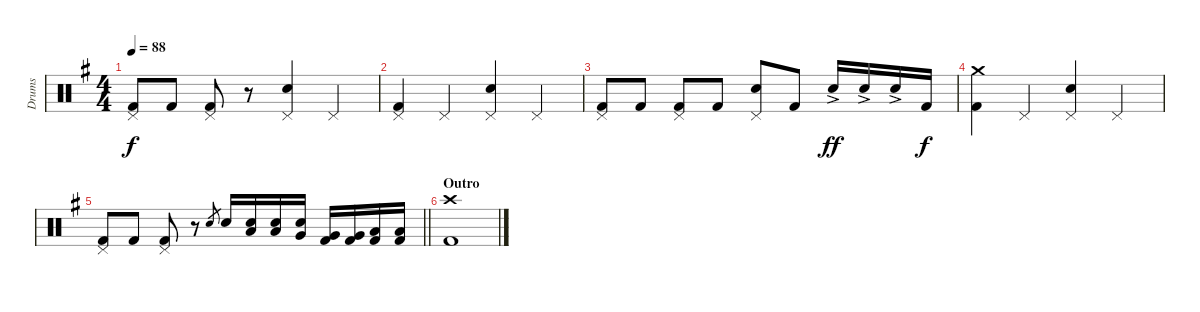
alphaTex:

\track ("Drums" "Drums") {instrument percussion}
\staff {score}
\articulation defaults
\ts (4 4)
\tempo 88
\clef neutral
\ks g
("Pedal Hi-Hat (hit)" "Kick (hit) 2").8{dy f} "Kick (hit) 2".8 ("Pedal Hi-Hat (hit)" "Kick (hit) 2").8 r.8 ("Pedal Hi-Hat (hit)" "Electric Snare (hit)").4 "Pedal Hi-Hat (hit)".4 |
("Pedal Hi-Hat (hit)" "Kick (hit) 2").4 "Pedal Hi-Hat (hit)".4 ("Pedal Hi-Hat (hit)" "Electric Snare (hit)").4 "Pedal Hi-Hat (hit)".4 |
("Pedal Hi-Hat (hit)" "Kick (hit) 2").8 "Kick (hit) 2".8 ("Pedal Hi-Hat (hit)" "Kick (hit) 2").8 "Kick (hit) 2".8 ("Pedal Hi-Hat (hit)" "Electric Snare (hit)").8 "Kick (hit) 2".8 "Electric Snare (hit)"{ac}.16{dy ff} "Electric Snare (hit)"{ac}.16 "Electric Snare (hit)"{ac}.16 "Kick (hit) 2".16{dy f} |
("Crash medium (hit)" "Kick (hit) 2").4 "Pedal Hi-Hat (hit)".4 ("Pedal Hi-Hat (hit)" "Electric Snare (hit)").4 "Pedal Hi-Hat (hit)".4 |
\barLineRight lightlight
("Pedal Hi-Hat (hit)" "Kick (hit) 2").8 "Kick (hit) 2".8 ("Pedal Hi-Hat (hit)" "Kick (hit) 2").8 r.8 "Electric Snare (hit)".8{gr} "Electric Snare (hit)".16 ("Low Tom (hit)" "Electric Snare (hit)").16 ("Low Tom (hit)" "Electric Snare (hit)").16 ("Very Low Tom (hit)" "Electric Snare (hit)").16 ("Very Low Tom (hit)" "Kick (hit) 2").16 ("Very Low Tom (hit)" "Kick (hit) 2").16 ("Low Floor Tom (hit)" "Kick (hit) 2").16 ("Low Floor Tom (hit)" "Kick (hit) 2").16 |
\section ("" "Outro")
("Crash high (hit)" "Kick (hit) 2").1
